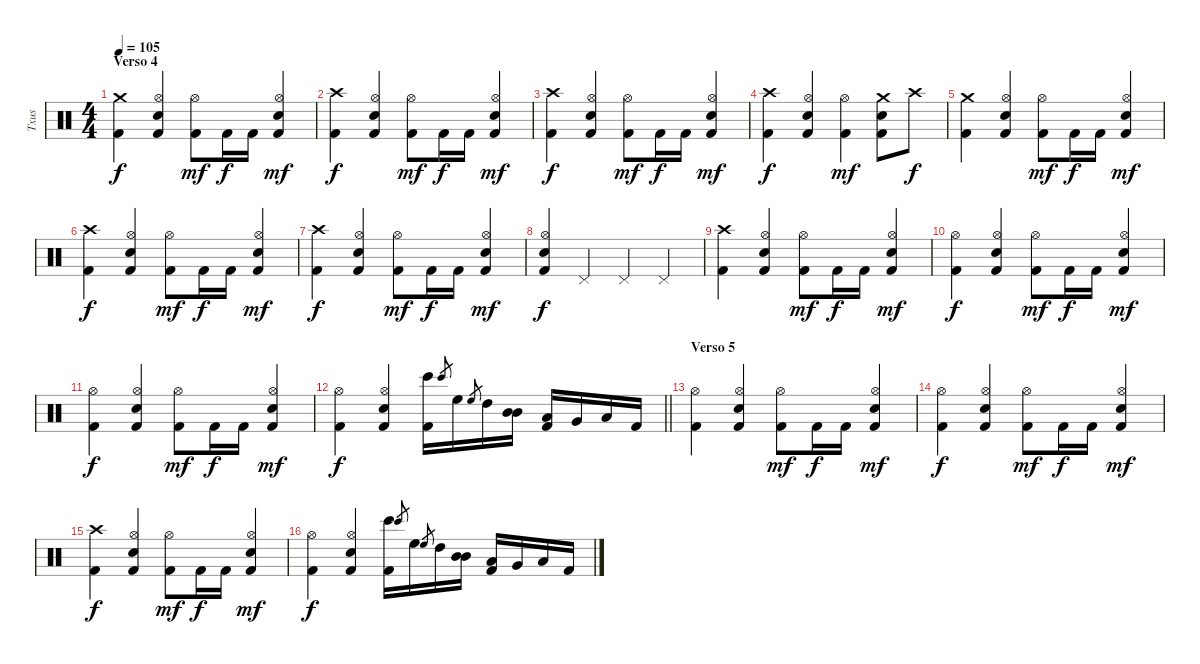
\track ("Txus" "Txus") {instrument percussion}
\staff {score}
\articulation defaults
\ts (4 4)
\section ("" "Verso 4")
\tempo 105
\clef neutral
\ks c
("Crash medium (hit)" "Kick (hit) 2").4{dy f} ("Hi-Hat (open)" "Electric Snare (hit)" "Kick (hit) 2").4 ("Hi-Hat (open)" "Kick (hit) 2").8{dy mf} "Kick (hit) 2".16{dy f} "Kick (hit) 2".16 ("Hi-Hat (open)" "Electric Snare (hit)" "Kick (hit) 2").4{dy mf} |
("Crash high (hit)" "Kick (hit) 2").4{dy f} ("Hi-Hat (open)" "Electric Snare (hit)" "Kick (hit) 2").4 ("Hi-Hat (open)" "Kick (hit) 2").8{dy mf} "Kick (hit) 2".16{dy f} "Kick (hit) 2".16 ("Hi-Hat (open)" "Electric Snare (hit)" "Kick (hit) 2").4{dy mf} |
("Crash high (hit)" "Kick (hit) 2").4{dy f} ("Hi-Hat (open)" "Electric Snare (hit)" "Kick (hit) 2").4 ("Hi-Hat (open)" "Kick (hit) 2").8{dy mf} "Kick (hit) 2".16{dy f} "Kick (hit) 2".16 ("Hi-Hat (open)" "Electric Snare (hit)" "Kick (hit) 2").4{dy mf} |
("Crash high (hit)" "Kick (hit) 2").4{dy f} ("Hi-Hat (open)" "Electric Snare (hit)" "Kick (hit) 2").4 ("Hi-Hat (open)" "Kick (hit) 2").4{dy mf} ("Crash medium (hit)" "Electric Snare (hit)" "Kick (hit) 2").8 "Crash high (hit)".8{dy f} |
("Crash medium (hit)" "Kick (hit) 2").4 ("Hi-Hat (open)" "Electric Snare (hit)" "Kick (hit) 2").4 ("Hi-Hat (open)" "Kick (hit) 2").8{dy mf} "Kick (hit) 2".16{dy f} "Kick (hit) 2".16 ("Hi-Hat (open)" "Electric Snare (hit)" "Kick (hit) 2").4{dy mf} |
("Crash high (hit)" "Kick (hit) 2").4{dy f} ("Hi-Hat (open)" "Electric Snare (hit)" "Kick (hit) 2").4 ("Hi-Hat (open)" "Kick (hit) 2").8{dy mf} "Kick (hit) 2".16{dy f} "Kick (hit) 2".16 ("Hi-Hat (open)" "Electric Snare (hit)" "Kick (hit) 2").4{dy mf} |
("Crash high (hit)" "Kick (hit) 2").4{dy f} ("Hi-Hat (open)" "Electric Snare (hit)" "Kick (hit) 2").4 ("Hi-Hat (open)" "Kick (hit) 2").8{dy mf} "Kick (hit) 2".16{dy f} "Kick (hit) 2".16 ("Hi-Hat (open)" "Electric Snare (hit)" "Kick (hit) 2").4{dy mf} |
("Hi-Hat (open)" "Electric Snare (hit)" "Kick (hit) 2").4{dy f} "Pedal Hi-Hat (hit)".4 "Pedal Hi-Hat (hit)".4 "Pedal Hi-Hat (hit)".4 |
("Crash high (hit)" "Kick (hit) 2").4 ("Hi-Hat (open)" "Electric Snare (hit)" "Kick (hit) 2").4 ("Hi-Hat (open)" "Kick (hit) 2").8{dy mf} "Kick (hit) 2".16{dy f} "Kick (hit) 2".16 ("Hi-Hat (open)" "Electric Snare (hit)" "Kick (hit) 2").4{dy mf} |
("Hi-Hat (open)" "Kick (hit) 2").4{dy f} ("Hi-Hat (open)" "Electric Snare (hit)" "Kick (hit) 2").4 ("Hi-Hat (open)" "Kick (hit) 2").8{dy mf} "Kick (hit) 2".16{dy f} "Kick (hit) 2".16 ("Hi-Hat (open)" "Electric Snare (hit)" "Kick (hit) 2").4{dy mf} |
("Hi-Hat (open)" "Kick (hit) 2").4{dy f} ("Hi-Hat (open)" "Electric Snare (hit)" "Kick (hit) 2").4 ("Hi-Hat (open)" "Kick (hit) 2").8{dy mf} "Kick (hit) 2".16{dy f} "Kick (hit) 2".16 ("Hi-Hat (open)" "Electric Snare (hit)" "Kick (hit) 2").4{dy mf} |
\barLineRight lightlight
("Hi-Hat (open)" "Kick (hit) 2").4{dy f} ("Hi-Hat (open)" "Electric Snare (hit)" "Kick (hit) 2").4 ("Bongo High (hit)" "Kick (hit) 2").16 "Bongo High (hit)".8{gr} "High Floor Tom (hit)".16 "High Floor Tom (hit)".8{gr} "High Tom (hit)".16 ("Mid Tom (hit)" "Mid Tom (hit)").16 ("Low Tom (hit)" "Kick (hit) 2").16 "Very Low Tom (hit)".16 "Low Floor Tom (hit)".16 "Kick (hit) 2".16 |
\section ("" "Verso 5")
("Hi-Hat (open)" "Kick (hit) 2").4 ("Hi-Hat (open)" "Electric Snare (hit)" "Kick (hit) 2").4 ("Hi-Hat (open)" "Kick (hit) 2").8{dy mf} "Kick (hit) 2".16{dy f} "Kick (hit) 2".16 ("Hi-Hat (open)" "Electric Snare (hit)" "Kick (hit) 2").4{dy mf} |
("Hi-Hat (open)" "Kick (hit) 2").4{dy f} ("Hi-Hat (open)" "Electric Snare (hit)" "Kick (hit) 2").4 ("Hi-Hat (open)" "Kick (hit) 2").8{dy mf} "Kick (hit) 2".16{dy f} "Kick (hit) 2".16 ("Hi-Hat (open)" "Electric Snare (hit)" "Kick (hit) 2").4{dy mf} |
("Crash high (hit)" "Kick (hit) 2").4{dy f} ("Hi-Hat (open)" "Electric Snare (hit)" "Kick (hit) 2").4 ("Hi-Hat (open)" "Kick (hit) 2").8{dy mf} "Kick (hit) 2".16{dy f} "Kick (hit) 2".16 ("Hi-Hat (open)" "Electric Snare (hit)" "Kick (hit) 2").4{dy mf} |
("Hi-Hat (open)" "Kick (hit) 2").4{dy f} ("Hi-Hat (open)" "Electric Snare (hit)" "Kick (hit) 2").4 ("Bongo High (hit)" "Kick (hit) 2").16 "Bongo High (hit)".8{gr} "High Floor Tom (hit)".16 "High Floor Tom (hit)".8{gr} "High Tom (hit)".16 ("Mid Tom (hit)" "Mid Tom (hit)").16 ("Low Tom (hit)" "Kick (hit) 2").16 "Very Low Tom (hit)".16 "Low Floor Tom (hit)".16 "Kick (hit) 2".16
